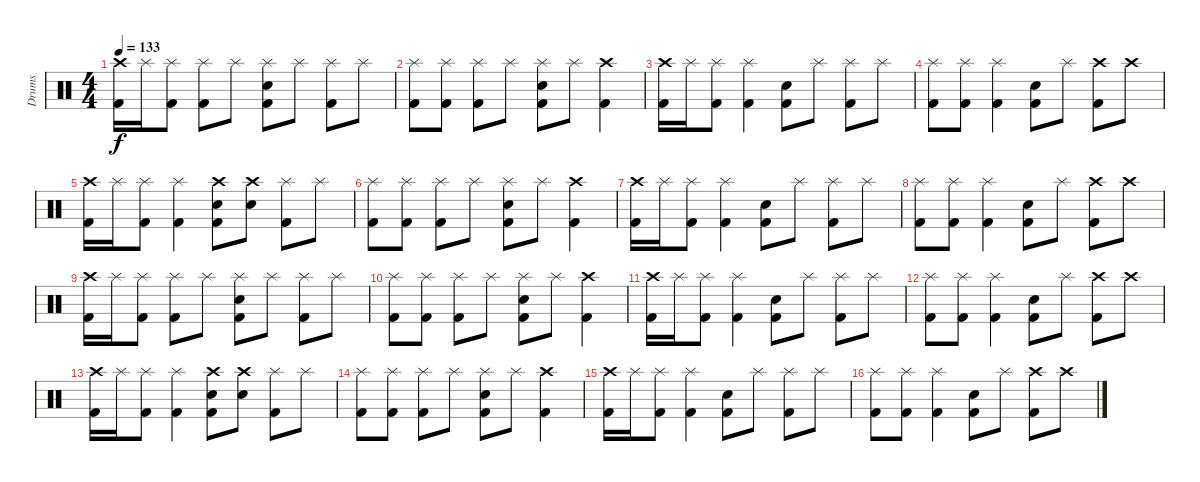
\track ("Drums" "Drums") {instrument percussion}
\staff {score}
\articulation defaults
\ts (4 4)
\tempo 133
\clef neutral
\ks c
("Kick (hit) 2" "Crash high (hit)").16{dy f} "Splash (hit)".16 ("Kick (hit) 2" "Splash (hit)").8 ("Kick (hit) 2" "Splash (hit)").8 "Splash (hit)".8 ("Kick (hit) 2" "Snare (hit) 2" "Splash (hit)").8 "Splash (hit)".8 ("Kick (hit) 2" "Splash (hit)").8 "Splash (hit)".8 |
("Kick (hit) 2" "Splash (hit)").8 ("Kick (hit) 2" "Splash (hit)").8 ("Kick (hit) 2" "Splash (hit)").8 "Splash (hit)".8 ("Kick (hit) 2" "Snare (hit) 2" "Splash (hit)").8 "Splash (hit)".8 ("Kick (hit) 2" "Crash high (hit)").4 |
("Kick (hit) 2" "Crash high (hit)").16 "Splash (hit)".16 ("Kick (hit) 2" "Splash (hit)").8 ("Kick (hit) 2" "Splash (hit)").4 ("Kick (hit) 2" "Snare (hit) 2").8 "Splash (hit)".8 ("Kick (hit) 2" "Splash (hit)").8 "Splash (hit)".8 |
("Kick (hit) 2" "Splash (hit)").8 ("Kick (hit) 2" "Splash (hit)").8 ("Kick (hit) 2" "Splash (hit)").4 ("Kick (hit) 2" "Snare (hit) 2").8 "Splash (hit)".8 ("Kick (hit) 2" "Crash high (hit)").8 "Crash high (hit)".8 |
("Kick (hit) 2" "Crash high (hit)").16 "Splash (hit)".16 ("Kick (hit) 2" "Splash (hit)").8 ("Kick (hit) 2" "Splash (hit)").4 ("Kick (hit) 2" "Snare (hit) 2" "Crash high (hit)").8 ("Snare (hit) 2" "Crash high (hit)").8 ("Kick (hit) 2" "Splash (hit)").8 "Splash (hit)".8 |
("Kick (hit) 2" "Splash (hit)").8 ("Kick (hit) 2" "Splash (hit)").8 ("Kick (hit) 2" "Splash (hit)").8 "Splash (hit)".8 ("Kick (hit) 2" "Snare (hit) 2" "Splash (hit)").8 "Splash (hit)".8 ("Kick (hit) 2" "Crash high (hit)").4 |
("Kick (hit) 2" "Crash high (hit)").16 "Splash (hit)".16 ("Kick (hit) 2" "Splash (hit)").8 ("Kick (hit) 2" "Splash (hit)").4 ("Kick (hit) 2" "Snare (hit) 2").8 "Splash (hit)".8 ("Kick (hit) 2" "Splash (hit)").8 "Splash (hit)".8 |
("Kick (hit) 2" "Splash (hit)").8 ("Kick (hit) 2" "Splash (hit)").8 ("Kick (hit) 2" "Splash (hit)").4 ("Kick (hit) 2" "Snare (hit) 2").8 "Splash (hit)".8 ("Kick (hit) 2" "Crash high (hit)").8 "Crash high (hit)".8 |
("Kick (hit) 2" "Crash high (hit)").16 "Splash (hit)".16 ("Kick (hit) 2" "Splash (hit)").8 ("Kick (hit) 2" "Splash (hit)").8 "Splash (hit)".8 ("Kick (hit) 2" "Snare (hit) 2" "Splash (hit)").8 "Splash (hit)".8 ("Kick (hit) 2" "Splash (hit)").8 "Splash (hit)".8 |
("Kick (hit) 2" "Splash (hit)").8 ("Kick (hit) 2" "Splash (hit)").8 ("Kick (hit) 2" "Splash (hit)").8 "Splash (hit)".8 ("Kick (hit) 2" "Snare (hit) 2" "Splash (hit)").8 "Splash (hit)".8 ("Kick (hit) 2" "Crash high (hit)").4 |
("Kick (hit) 2" "Crash high (hit)").16 "Splash (hit)".16 ("Kick (hit) 2" "Splash (hit)").8 ("Kick (hit) 2" "Splash (hit)").4 ("Kick (hit) 2" "Snare (hit) 2").8 "Splash (hit)".8 ("Kick (hit) 2" "Splash (hit)").8 "Splash (hit)".8 |
("Kick (hit) 2" "Splash (hit)").8 ("Kick (hit) 2" "Splash (hit)").8 ("Kick (hit) 2" "Splash (hit)").4 ("Kick (hit) 2" "Snare (hit) 2").8 "Splash (hit)".8 ("Kick (hit) 2" "Crash high (hit)").8 "Crash high (hit)".8 |
("Kick (hit) 2" "Crash high (hit)").16 "Splash (hit)".16 ("Kick (hit) 2" "Splash (hit)").8 ("Kick (hit) 2" "Splash (hit)").4 ("Kick (hit) 2" "Snare (hit) 2" "Crash high (hit)").8 ("Snare (hit) 2" "Crash high (hit)").8 ("Kick (hit) 2" "Splash (hit)").8 "Splash (hit)".8 |
("Kick (hit) 2" "Splash (hit)").8 ("Kick (hit) 2" "Splash (hit)").8 ("Kick (hit) 2" "Splash (hit)").8 "Splash (hit)".8 ("Kick (hit) 2" "Snare (hit) 2" "Splash (hit)").8 "Splash (hit)".8 ("Kick (hit) 2" "Crash high (hit)").4 |
("Kick (hit) 2" "Crash high (hit)").16 "Splash (hit)".16 ("Kick (hit) 2" "Splash (hit)").8 ("Kick (hit) 2" "Splash (hit)").4 ("Kick (hit) 2" "Snare (hit) 2").8 "Splash (hit)".8 ("Kick (hit) 2" "Splash (hit)").8 "Splash (hit)".8 |
("Kick (hit) 2" "Splash (hit)").8 ("Kick (hit) 2" "Splash (hit)").8 ("Kick (hit) 2" "Splash (hit)").4 ("Kick (hit) 2" "Snare (hit) 2").8 "Splash (hit)".8 ("Kick (hit) 2" "Crash high (hit)").8 "Crash high (hit)".8
